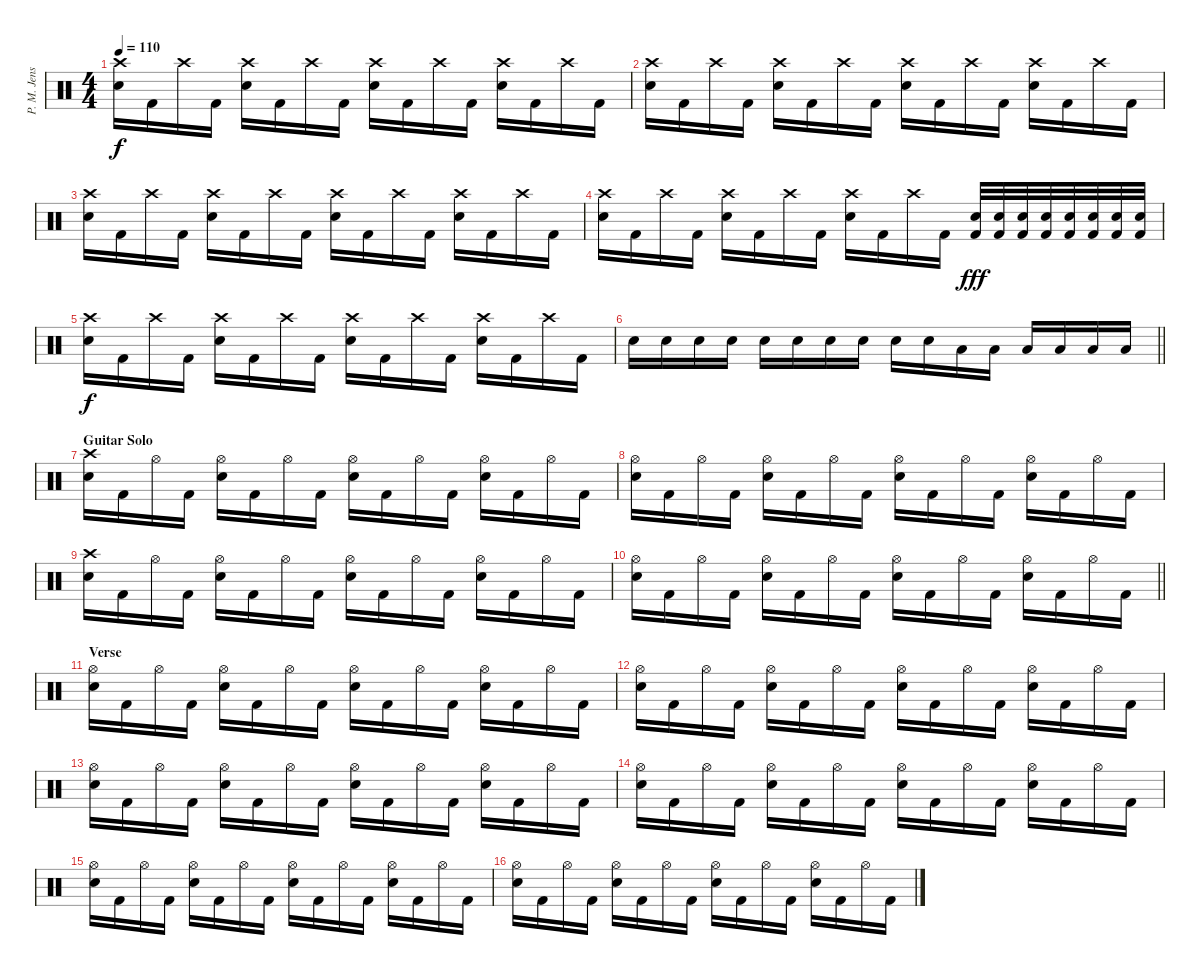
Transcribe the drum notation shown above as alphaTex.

\track ("P. M. Jensen" "P. M. Jens") {instrument percussion}
\staff {score}
\articulation defaults
\ts (4 4)
\tempo 110
\clef neutral
\ks c
("Crash high (hit)" "Electric Snare (hit)").16{dy f} "Kick (hit) 2".16 "Crash high (hit)".16 "Kick (hit) 2".16 ("Crash high (hit)" "Electric Snare (hit)").16 "Kick (hit) 2".16 "Crash high (hit)".16 "Kick (hit) 2".16 ("Crash high (hit)" "Electric Snare (hit)").16 "Kick (hit) 2".16 "Crash high (hit)".16 "Kick (hit) 2".16 ("Crash high (hit)" "Electric Snare (hit)").16 "Kick (hit) 2".16 "Crash high (hit)".16 "Kick (hit) 2".16 |
("Crash high (hit)" "Electric Snare (hit)").16 "Kick (hit) 2".16 "Crash high (hit)".16 "Kick (hit) 2".16 ("Crash high (hit)" "Electric Snare (hit)").16 "Kick (hit) 2".16 "Crash high (hit)".16 "Kick (hit) 2".16 ("Crash high (hit)" "Electric Snare (hit)").16 "Kick (hit) 2".16 "Crash high (hit)".16 "Kick (hit) 2".16 ("Crash high (hit)" "Electric Snare (hit)").16 "Kick (hit) 2".16 "Crash high (hit)".16 "Kick (hit) 2".16 |
("Crash high (hit)" "Electric Snare (hit)").16 "Kick (hit) 2".16 "Crash high (hit)".16 "Kick (hit) 2".16 ("Crash high (hit)" "Electric Snare (hit)").16 "Kick (hit) 2".16 "Crash high (hit)".16 "Kick (hit) 2".16 ("Crash high (hit)" "Electric Snare (hit)").16 "Kick (hit) 2".16 "Crash high (hit)".16 "Kick (hit) 2".16 ("Crash high (hit)" "Electric Snare (hit)").16 "Kick (hit) 2".16 "Crash high (hit)".16 "Kick (hit) 2".16 |
("Crash high (hit)" "Electric Snare (hit)").16 "Kick (hit) 2".16 "Crash high (hit)".16 "Kick (hit) 2".16 ("Crash high (hit)" "Electric Snare (hit)").16 "Kick (hit) 2".16 "Crash high (hit)".16 "Kick (hit) 2".16 ("Crash high (hit)" "Electric Snare (hit)").16 "Kick (hit) 2".16 "Crash high (hit)".16 "Kick (hit) 2".16 ("Electric Snare (hit)" "Kick (hit) 2").32{dy fff} ("Electric Snare (hit)" "Kick (hit) 2").32 ("Electric Snare (hit)" "Kick (hit) 2").32 ("Electric Snare (hit)" "Kick (hit) 2").32 ("Electric Snare (hit)" "Kick (hit) 2").32 ("Electric Snare (hit)" "Kick (hit) 2").32 ("Electric Snare (hit)" "Kick (hit) 2").32 ("Electric Snare (hit)" "Kick (hit) 2").32 |
("Crash high (hit)" "Electric Snare (hit)").16{dy f} "Kick (hit) 2".16 "Crash high (hit)".16 "Kick (hit) 2".16 ("Crash high (hit)" "Electric Snare (hit)").16 "Kick (hit) 2".16 "Crash high (hit)".16 "Kick (hit) 2".16 ("Crash high (hit)" "Electric Snare (hit)").16 "Kick (hit) 2".16 "Crash high (hit)".16 "Kick (hit) 2".16 ("Crash high (hit)" "Electric Snare (hit)").16 "Kick (hit) 2".16 "Crash high (hit)".16 "Kick (hit) 2".16 |
\barLineRight lightlight "Electric Snare (hit)".16 "Electric Snare (hit)".16 "Electric Snare (hit)".16 "Electric Snare (hit)".16 "Electric Snare (hit)".16 "Electric Snare (hit)".16 "Electric Snare (hit)".16 "Electric Snare (hit)".16 "Electric Snare (hit)".16 "Electric Snare (hit)".16 "Low Tom (hit)".16 "Low Tom (hit)".16 "Low Tom (hit)".16 "Low Tom (hit)".16 "Low Tom (hit)".16 "Low Tom (hit)".16
|
\section ("" "Guitar Solo")
("Crash high (hit)" "Electric Snare (hit)").16 "Kick (hit) 2".16 "Hi-Hat (open)".16 "Kick (hit) 2".16 ("Hi-Hat (open)" "Electric Snare (hit)").16 "Kick (hit) 2".16 "Hi-Hat (open)".16 "Kick (hit) 2".16 ("Hi-Hat (open)" "Electric Snare (hit)").16 "Kick (hit) 2".16 "Hi-Hat (open)".16 "Kick (hit) 2".16 ("Hi-Hat (open)" "Electric Snare (hit)").16 "Kick (hit) 2".16 "Hi-Hat (open)".16 "Kick (hit) 2".16 |
("Hi-Hat (open)" "Electric Snare (hit)").16 "Kick (hit) 2".16 "Hi-Hat (open)".16 "Kick (hit) 2".16 ("Hi-Hat (open)" "Electric Snare (hit)").16 "Kick (hit) 2".16 "Hi-Hat (open)".16 "Kick (hit) 2".16 ("Hi-Hat (open)" "Electric Snare (hit)").16 "Kick (hit) 2".16 "Hi-Hat (open)".16 "Kick (hit) 2".16 ("Hi-Hat (open)" "Electric Snare (hit)").16 "Kick (hit) 2".16 "Hi-Hat (open)".16 "Kick (hit) 2".16 |
("Crash high (hit)" "Electric Snare (hit)").16 "Kick (hit) 2".16 "Hi-Hat (open)".16 "Kick (hit) 2".16 ("Hi-Hat (open)" "Electric Snare (hit)").16 "Kick (hit) 2".16 "Hi-Hat (open)".16 "Kick (hit) 2".16 ("Hi-Hat (open)" "Electric Snare (hit)").16 "Kick (hit) 2".16 "Hi-Hat (open)".16 "Kick (hit) 2".16 ("Hi-Hat (open)" "Electric Snare (hit)").16 "Kick (hit) 2".16 "Hi-Hat (open)".16 "Kick (hit) 2".16 |
\barLineRight lightlight
("Hi-Hat (open)" "Electric Snare (hit)").16 "Kick (hit) 2".16 "Hi-Hat (open)".16 "Kick (hit) 2".16 ("Hi-Hat (open)" "Electric Snare (hit)").16 "Kick (hit) 2".16 "Hi-Hat (open)".16 "Kick (hit) 2".16 ("Hi-Hat (open)" "Electric Snare (hit)").16 "Kick (hit) 2".16 "Hi-Hat (open)".16 "Kick (hit) 2".16 ("Hi-Hat (open)" "Electric Snare (hit)").16 "Kick (hit) 2".16 "Hi-Hat (open)".16 "Kick (hit) 2".16 |
\section ("" "Verse")
("Hi-Hat (open)" "Electric Snare (hit)").16 "Kick (hit) 2".16 "Hi-Hat (open)".16 "Kick (hit) 2".16 ("Hi-Hat (open)" "Electric Snare (hit)").16 "Kick (hit) 2".16 "Hi-Hat (open)".16 "Kick (hit) 2".16 ("Hi-Hat (open)" "Electric Snare (hit)").16 "Kick (hit) 2".16 "Hi-Hat (open)".16 "Kick (hit) 2".16 ("Hi-Hat (open)" "Electric Snare (hit)").16 "Kick (hit) 2".16 "Hi-Hat (open)".16 "Kick (hit) 2".16 |
("Hi-Hat (open)" "Electric Snare (hit)").16 "Kick (hit) 2".16 "Hi-Hat (open)".16 "Kick (hit) 2".16 ("Hi-Hat (open)" "Electric Snare (hit)").16 "Kick (hit) 2".16 "Hi-Hat (open)".16 "Kick (hit) 2".16 ("Hi-Hat (open)" "Electric Snare (hit)").16 "Kick (hit) 2".16 "Hi-Hat (open)".16 "Kick (hit) 2".16 ("Hi-Hat (open)" "Electric Snare (hit)").16 "Kick (hit) 2".16 "Hi-Hat (open)".16 "Kick (hit) 2".16 |
("Hi-Hat (open)" "Electric Snare (hit)").16 "Kick (hit) 2".16 "Hi-Hat (open)".16 "Kick (hit) 2".16 ("Hi-Hat (open)" "Electric Snare (hit)").16 "Kick (hit) 2".16 "Hi-Hat (open)".16 "Kick (hit) 2".16 ("Hi-Hat (open)" "Electric Snare (hit)").16 "Kick (hit) 2".16 "Hi-Hat (open)".16 "Kick (hit) 2".16 ("Hi-Hat (open)" "Electric Snare (hit)").16 "Kick (hit) 2".16 "Hi-Hat (open)".16 "Kick (hit) 2".16 |
("Hi-Hat (open)" "Electric Snare (hit)").16 "Kick (hit) 2".16 "Hi-Hat (open)".16 "Kick (hit) 2".16 ("Hi-Hat (open)" "Electric Snare (hit)").16 "Kick (hit) 2".16 "Hi-Hat (open)".16 "Kick (hit) 2".16 ("Hi-Hat (open)" "Electric Snare (hit)").16 "Kick (hit) 2".16 "Hi-Hat (open)".16 "Kick (hit) 2".16 ("Hi-Hat (open)" "Electric Snare (hit)").16 "Kick (hit) 2".16 "Hi-Hat (open)".16 "Kick (hit) 2".16 |
("Hi-Hat (open)" "Electric Snare (hit)").16 "Kick (hit) 2".16 "Hi-Hat (open)".16 "Kick (hit) 2".16 ("Hi-Hat (open)" "Electric Snare (hit)").16 "Kick (hit) 2".16 "Hi-Hat (open)".16 "Kick (hit) 2".16 ("Hi-Hat (open)" "Electric Snare (hit)").16 "Kick (hit) 2".16 "Hi-Hat (open)".16 "Kick (hit) 2".16 ("Hi-Hat (open)" "Electric Snare (hit)").16 "Kick (hit) 2".16 "Hi-Hat (open)".16 "Kick (hit) 2".16 |
("Hi-Hat (open)" "Electric Snare (hit)").16 "Kick (hit) 2".16 "Hi-Hat (open)".16 "Kick (hit) 2".16 ("Hi-Hat (open)" "Electric Snare (hit)").16 "Kick (hit) 2".16 "Hi-Hat (open)".16 "Kick (hit) 2".16 ("Hi-Hat (open)" "Electric Snare (hit)").16 "Kick (hit) 2".16 "Hi-Hat (open)".16 "Kick (hit) 2".16 ("Hi-Hat (open)" "Electric Snare (hit)").16 "Kick (hit) 2".16 "Hi-Hat (open)".16 "Kick (hit) 2".16
